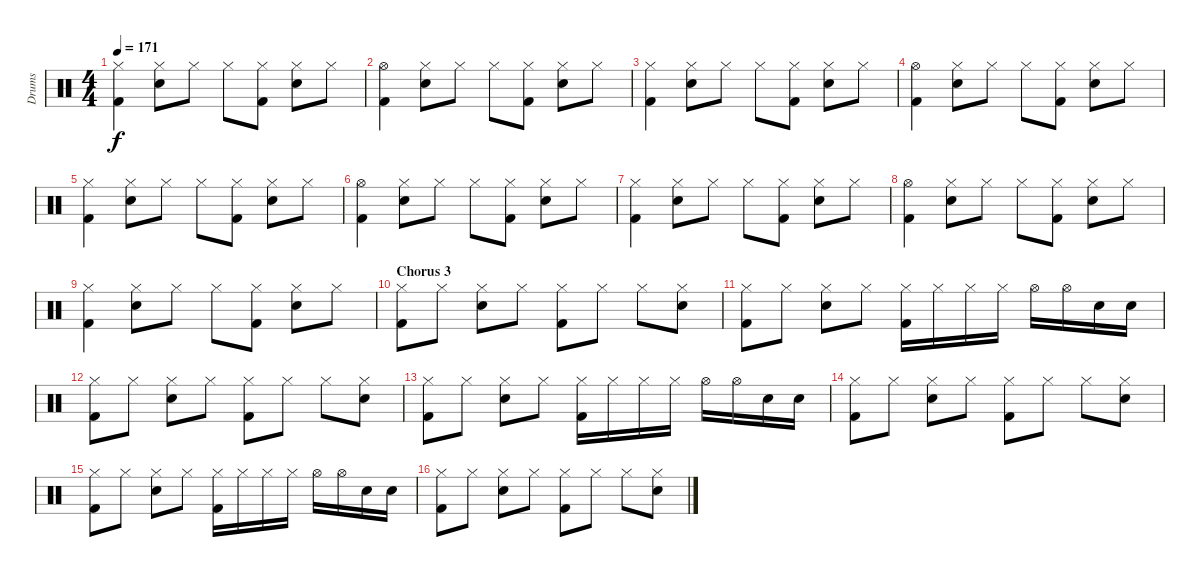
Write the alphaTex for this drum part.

\track ("Drums" "Drums") {instrument percussion}
\staff {score}
\articulation defaults
\ts (4 4)
\tempo 171
\clef neutral
\ks c
("Hi-Hat (closed)" "Kick (hit) 2").4{dy f} ("Hi-Hat (closed)" "Electric Snare (hit)").8 "Hi-Hat (closed)".8 "Hi-Hat (closed)".8 ("Hi-Hat (closed)" "Kick (hit) 2").8 ("Hi-Hat (closed)" "Electric Snare (hit)").8 "Hi-Hat (closed)".8 |
("Hi-Hat (open)" "Kick (hit) 2").4 ("Hi-Hat (closed)" "Electric Snare (hit)").8 "Hi-Hat (closed)".8 "Hi-Hat (closed)".8 ("Hi-Hat (closed)" "Kick (hit) 2").8 ("Hi-Hat (closed)" "Electric Snare (hit)").8 "Hi-Hat (closed)".8 |
("Hi-Hat (closed)" "Kick (hit) 2").4 ("Hi-Hat (closed)" "Electric Snare (hit)").8 "Hi-Hat (closed)".8 "Hi-Hat (closed)".8 ("Hi-Hat (closed)" "Kick (hit) 2").8 ("Hi-Hat (closed)" "Electric Snare (hit)").8 "Hi-Hat (closed)".8 |
("Hi-Hat (open)" "Kick (hit) 2").4 ("Hi-Hat (closed)" "Electric Snare (hit)").8 "Hi-Hat (closed)".8 "Hi-Hat (closed)".8 ("Hi-Hat (closed)" "Kick (hit) 2").8 ("Hi-Hat (closed)" "Electric Snare (hit)").8 "Hi-Hat (closed)".8 |
("Hi-Hat (closed)" "Kick (hit) 2").4 ("Hi-Hat (closed)" "Electric Snare (hit)").8 "Hi-Hat (closed)".8 "Hi-Hat (closed)".8 ("Hi-Hat (closed)" "Kick (hit) 2").8 ("Hi-Hat (closed)" "Electric Snare (hit)").8 "Hi-Hat (closed)".8 |
("Hi-Hat (open)" "Kick (hit) 2").4 ("Hi-Hat (closed)" "Electric Snare (hit)").8 "Hi-Hat (closed)".8 "Hi-Hat (closed)".8 ("Hi-Hat (closed)" "Kick (hit) 2").8 ("Hi-Hat (closed)" "Electric Snare (hit)").8 "Hi-Hat (closed)".8 |
("Hi-Hat (closed)" "Kick (hit) 2").4 ("Hi-Hat (closed)" "Electric Snare (hit)").8 "Hi-Hat (closed)".8 "Hi-Hat (closed)".8 ("Hi-Hat (closed)" "Kick (hit) 2").8 ("Hi-Hat (closed)" "Electric Snare (hit)").8 "Hi-Hat (closed)".8 |
("Hi-Hat (open)" "Kick (hit) 2").4 ("Hi-Hat (closed)" "Electric Snare (hit)").8 "Hi-Hat (closed)".8 "Hi-Hat (closed)".8 ("Hi-Hat (closed)" "Kick (hit) 2").8 ("Hi-Hat (closed)" "Electric Snare (hit)").8 "Hi-Hat (closed)".8 |
("Hi-Hat (closed)" "Kick (hit) 2").4 ("Hi-Hat (closed)" "Electric Snare (hit)").8 "Hi-Hat (closed)".8 "Hi-Hat (closed)".8 ("Hi-Hat (closed)" "Kick (hit) 2").8 ("Hi-Hat (closed)" "Electric Snare (hit)").8 "Hi-Hat (closed)".8 |
\section ("" "Chorus 3")
("Hi-Hat (closed)" "Kick (hit) 2").8 "Hi-Hat (closed)".8 ("Hi-Hat (closed)" "Electric Snare (hit)").8 "Hi-Hat (closed)".8 ("Hi-Hat (closed)" "Kick (hit) 2").8 "Hi-Hat (closed)".8 "Hi-Hat (closed)".8 ("Hi-Hat (closed)" "Electric Snare (hit)").8 |
("Hi-Hat (closed)" "Kick (hit) 2").8 "Hi-Hat (closed)".8 ("Hi-Hat (closed)" "Electric Snare (hit)").8 "Hi-Hat (closed)".8 ("Hi-Hat (closed)" "Kick (hit) 2").16 "Hi-Hat (closed)".16 "Hi-Hat (closed)".16 "Hi-Hat (closed)".16 "Hi-Hat (open)".16 "Hi-Hat (open)".16 "Electric Snare (hit)".16 "Electric Snare (hit)".16 |
("Hi-Hat (closed)" "Kick (hit) 2").8 "Hi-Hat (closed)".8 ("Hi-Hat (closed)" "Electric Snare (hit)").8 "Hi-Hat (closed)".8 ("Hi-Hat (closed)" "Kick (hit) 2").8 "Hi-Hat (closed)".8 "Hi-Hat (closed)".8 ("Hi-Hat (closed)" "Electric Snare (hit)").8 |
("Hi-Hat (closed)" "Kick (hit) 2").8 "Hi-Hat (closed)".8 ("Hi-Hat (closed)" "Electric Snare (hit)").8 "Hi-Hat (closed)".8 ("Hi-Hat (closed)" "Kick (hit) 2").16 "Hi-Hat (closed)".16 "Hi-Hat (closed)".16 "Hi-Hat (closed)".16 "Hi-Hat (open)".16 "Hi-Hat (open)".16 "Electric Snare (hit)".16 "Electric Snare (hit)".16 |
("Hi-Hat (closed)" "Kick (hit) 2").8 "Hi-Hat (closed)".8 ("Hi-Hat (closed)" "Electric Snare (hit)").8 "Hi-Hat (closed)".8 ("Hi-Hat (closed)" "Kick (hit) 2").8 "Hi-Hat (closed)".8 "Hi-Hat (closed)".8 ("Hi-Hat (closed)" "Electric Snare (hit)").8 |
("Hi-Hat (closed)" "Kick (hit) 2").8 "Hi-Hat (closed)".8 ("Hi-Hat (closed)" "Electric Snare (hit)").8 "Hi-Hat (closed)".8 ("Hi-Hat (closed)" "Kick (hit) 2").16 "Hi-Hat (closed)".16 "Hi-Hat (closed)".16 "Hi-Hat (closed)".16 "Hi-Hat (open)".16 "Hi-Hat (open)".16 "Electric Snare (hit)".16 "Electric Snare (hit)".16 |
("Hi-Hat (closed)" "Kick (hit) 2").8 "Hi-Hat (closed)".8 ("Hi-Hat (closed)" "Electric Snare (hit)").8 "Hi-Hat (closed)".8 ("Hi-Hat (closed)" "Kick (hit) 2").8 "Hi-Hat (closed)".8 "Hi-Hat (closed)".8 ("Hi-Hat (closed)" "Electric Snare (hit)").8
